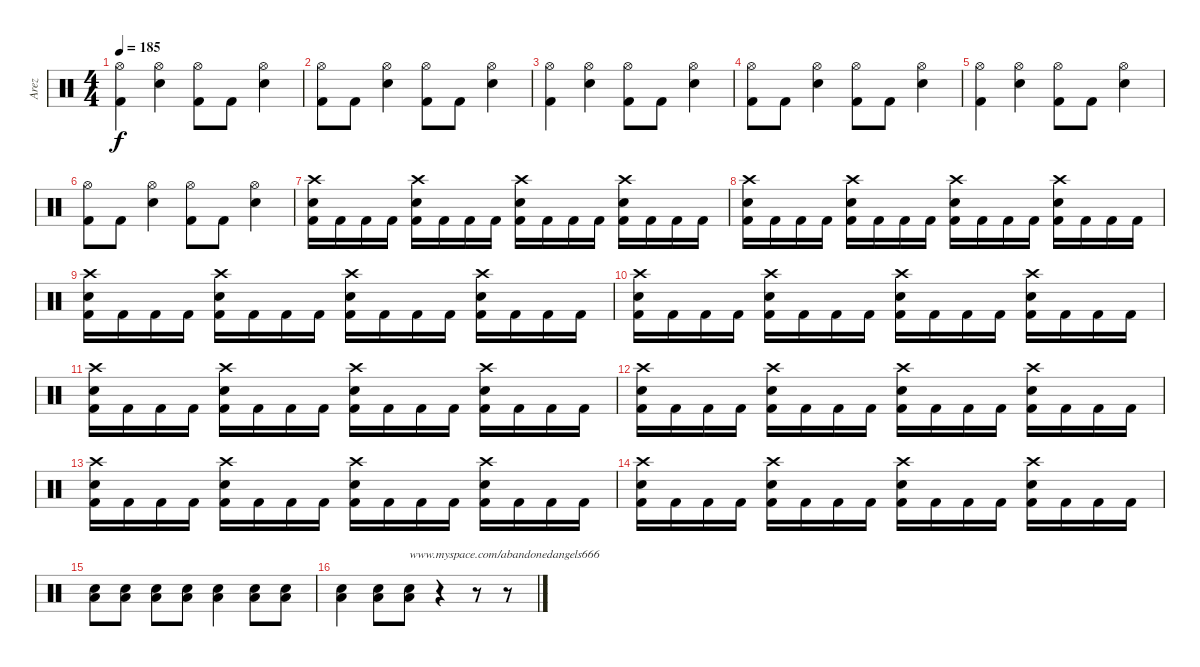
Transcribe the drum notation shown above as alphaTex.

\track ("Arez" "Arez") {instrument percussion}
\staff {score}
\articulation defaults
\ts (4 4)
\tempo 185
\clef neutral
\ks c
("Hi-Hat (open)" "Kick (hit) 2").4{dy f} ("Hi-Hat (open)" "Electric Snare (hit)").4 ("Hi-Hat (open)" "Kick (hit) 2").8 "Kick (hit) 2".8 ("Electric Snare (hit)" "Hi-Hat (open)").4 |
("Hi-Hat (open)" "Kick (hit) 2").8 "Kick (hit) 2".8 ("Hi-Hat (open)" "Electric Snare (hit)").4 ("Hi-Hat (open)" "Kick (hit) 2").8 "Kick (hit) 2".8 ("Hi-Hat (open)" "Electric Snare (hit)").4 |
("Hi-Hat (open)" "Kick (hit) 2").4 ("Hi-Hat (open)" "Electric Snare (hit)").4 ("Hi-Hat (open)" "Kick (hit) 2").8 "Kick (hit) 2".8 ("Electric Snare (hit)" "Hi-Hat (open)").4 |
("Hi-Hat (open)" "Kick (hit) 2").8 "Kick (hit) 2".8 ("Hi-Hat (open)" "Electric Snare (hit)").4 ("Hi-Hat (open)" "Kick (hit) 2").8 "Kick (hit) 2".8 ("Hi-Hat (open)" "Electric Snare (hit)").4 |
("Hi-Hat (open)" "Kick (hit) 2").4 ("Hi-Hat (open)" "Electric Snare (hit)").4 ("Hi-Hat (open)" "Kick (hit) 2").8 "Kick (hit) 2".8 ("Electric Snare (hit)" "Hi-Hat (open)").4 |
("Hi-Hat (open)" "Kick (hit) 2").8 "Kick (hit) 2".8 ("Hi-Hat (open)" "Electric Snare (hit)").4 ("Hi-Hat (open)" "Kick (hit) 2").8 "Kick (hit) 2".8 ("Hi-Hat (open)" "Electric Snare (hit)").4 |
("Crash high (hit)" "Electric Snare (hit)" "Kick (hit) 2").16 "Kick (hit) 2".16 "Kick (hit) 2".16 "Kick (hit) 2".16 ("Crash high (hit)" "Electric Snare (hit)" "Kick (hit) 2").16 "Kick (hit) 2".16 "Kick (hit) 2".16 "Kick (hit) 2".16 ("Crash high (hit)" "Electric Snare (hit)" "Kick (hit) 2").16 "Kick (hit) 2".16 "Kick (hit) 2".16 "Kick (hit) 2".16 ("Crash high (hit)" "Electric Snare (hit)" "Kick (hit) 2").16 "Kick (hit) 2".16 "Kick (hit) 2".16 "Kick (hit) 2".16 |
("Crash high (hit)" "Electric Snare (hit)" "Kick (hit) 2").16 "Kick (hit) 2".16 "Kick (hit) 2".16 "Kick (hit) 2".16 ("Crash high (hit)" "Electric Snare (hit)" "Kick (hit) 2").16 "Kick (hit) 2".16 "Kick (hit) 2".16 "Kick (hit) 2".16 ("Crash high (hit)" "Electric Snare (hit)" "Kick (hit) 2").16 "Kick (hit) 2".16 "Kick (hit) 2".16 "Kick (hit) 2".16 ("Crash high (hit)" "Electric Snare (hit)" "Kick (hit) 2").16 "Kick (hit) 2".16 "Kick (hit) 2".16 "Kick (hit) 2".16 |
("Crash high (hit)" "Electric Snare (hit)" "Kick (hit) 2").16 "Kick (hit) 2".16 "Kick (hit) 2".16 "Kick (hit) 2".16 ("Crash high (hit)" "Electric Snare (hit)" "Kick (hit) 2").16 "Kick (hit) 2".16 "Kick (hit) 2".16 "Kick (hit) 2".16 ("Crash high (hit)" "Electric Snare (hit)" "Kick (hit) 2").16 "Kick (hit) 2".16 "Kick (hit) 2".16 "Kick (hit) 2".16 ("Crash high (hit)" "Electric Snare (hit)" "Kick (hit) 2").16 "Kick (hit) 2".16 "Kick (hit) 2".16 "Kick (hit) 2".16 |
("Crash high (hit)" "Electric Snare (hit)" "Kick (hit) 2").16 "Kick (hit) 2".16 "Kick (hit) 2".16 "Kick (hit) 2".16 ("Crash high (hit)" "Electric Snare (hit)" "Kick (hit) 2").16 "Kick (hit) 2".16 "Kick (hit) 2".16 "Kick (hit) 2".16 ("Crash high (hit)" "Electric Snare (hit)" "Kick (hit) 2").16 "Kick (hit) 2".16 "Kick (hit) 2".16 "Kick (hit) 2".16 ("Crash high (hit)" "Electric Snare (hit)" "Kick (hit) 2").16 "Kick (hit) 2".16 "Kick (hit) 2".16 "Kick (hit) 2".16 |
("Crash high (hit)" "Electric Snare (hit)" "Kick (hit) 2").16 "Kick (hit) 2".16 "Kick (hit) 2".16 "Kick (hit) 2".16 ("Crash high (hit)" "Electric Snare (hit)" "Kick (hit) 2").16 "Kick (hit) 2".16 "Kick (hit) 2".16 "Kick (hit) 2".16 ("Crash high (hit)" "Electric Snare (hit)" "Kick (hit) 2").16 "Kick (hit) 2".16 "Kick (hit) 2".16 "Kick (hit) 2".16 ("Crash high (hit)" "Electric Snare (hit)" "Kick (hit) 2").16 "Kick (hit) 2".16 "Kick (hit) 2".16 "Kick (hit) 2".16 |
("Crash high (hit)" "Electric Snare (hit)" "Kick (hit) 2").16 "Kick (hit) 2".16 "Kick (hit) 2".16 "Kick (hit) 2".16 ("Crash high (hit)" "Electric Snare (hit)" "Kick (hit) 2").16 "Kick (hit) 2".16 "Kick (hit) 2".16 "Kick (hit) 2".16 ("Crash high (hit)" "Electric Snare (hit)" "Kick (hit) 2").16 "Kick (hit) 2".16 "Kick (hit) 2".16 "Kick (hit) 2".16 ("Crash high (hit)" "Electric Snare (hit)" "Kick (hit) 2").16 "Kick (hit) 2".16 "Kick (hit) 2".16 "Kick (hit) 2".16 |
("Crash high (hit)" "Electric Snare (hit)" "Kick (hit) 2").16 "Kick (hit) 2".16 "Kick (hit) 2".16 "Kick (hit) 2".16 ("Crash high (hit)" "Electric Snare (hit)" "Kick (hit) 2").16 "Kick (hit) 2".16 "Kick (hit) 2".16 "Kick (hit) 2".16 ("Crash high (hit)" "Electric Snare (hit)" "Kick (hit) 2").16 "Kick (hit) 2".16 "Kick (hit) 2".16 "Kick (hit) 2".16 ("Crash high (hit)" "Electric Snare (hit)" "Kick (hit) 2").16 "Kick (hit) 2".16 "Kick (hit) 2".16 "Kick (hit) 2".16 |
("Crash high (hit)" "Electric Snare (hit)" "Kick (hit) 2").16 "Kick (hit) 2".16 "Kick (hit) 2".16 "Kick (hit) 2".16 ("Crash high (hit)" "Electric Snare (hit)" "Kick (hit) 2").16 "Kick (hit) 2".16 "Kick (hit) 2".16 "Kick (hit) 2".16 ("Crash high (hit)" "Electric Snare (hit)" "Kick (hit) 2").16 "Kick (hit) 2".16 "Kick (hit) 2".16 "Kick (hit) 2".16 ("Crash high (hit)" "Electric Snare (hit)" "Kick (hit) 2").16 "Kick (hit) 2".16 "Kick (hit) 2".16 "Kick (hit) 2".16 |
("Electric Snare (hit)" "Low Floor Tom (hit)").8 ("Electric Snare (hit)" "Low Floor Tom (hit)").8 ("Electric Snare (hit)" "Low Floor Tom (hit)").8 ("Electric Snare (hit)" "Low Floor Tom (hit)").8 ("Electric Snare (hit)" "Low Floor Tom (hit)").4 ("Electric Snare (hit)" "Low Floor Tom (hit)").8 ("Electric Snare (hit)" "Low Floor Tom (hit)").8 |
("Electric Snare (hit)" "Low Floor Tom (hit)").4 ("Electric Snare (hit)" "Low Floor Tom (hit)").8 ("Electric Snare (hit)" "Low Floor Tom (hit)").8{txt "www.myspace.com/abandonedangels666"} r.4 r.8 r.8
